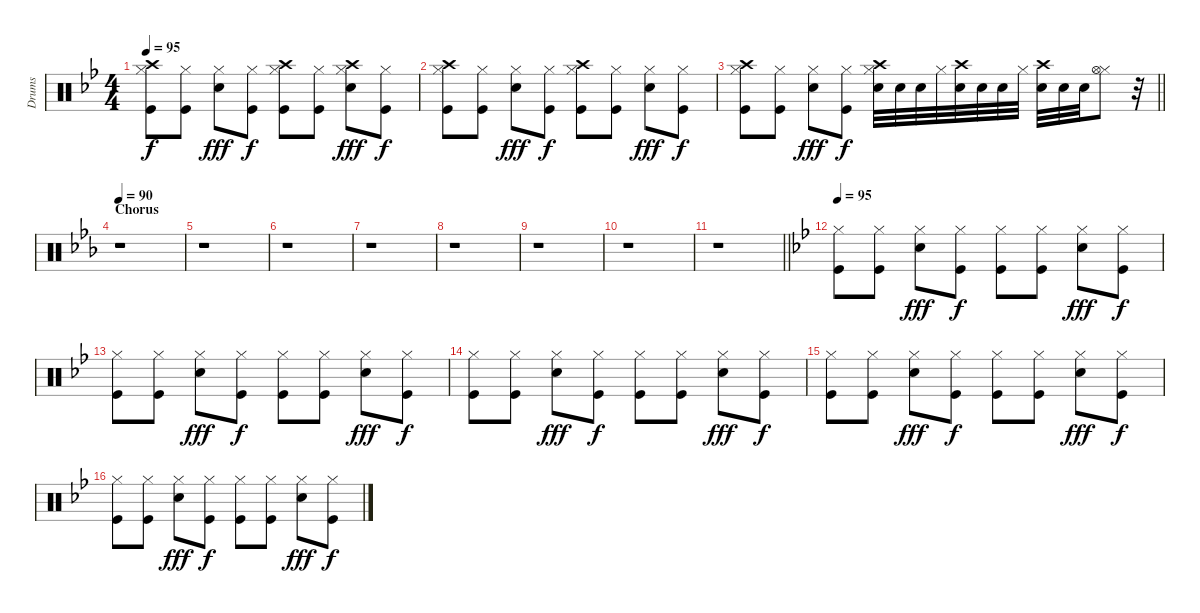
\track ("Drums" "Drums") {instrument percussion}
\staff {score}
\articulation defaults
\ts (4 4)
\tempo 95
\clef neutral
\ks gminor
("Hi-Hat (closed)" "Kick (hit)" "Crash high (hit)").8{dy f} ("Hi-Hat (closed)" "Kick (hit)").8 ("Hi-Hat (closed)" "Electric Snare (hit)").8{dy fff} ("Hi-Hat (closed)" "Kick (hit)").8{dy f} ("Hi-Hat (closed)" "Kick (hit)" "Crash high (hit)").8 ("Hi-Hat (closed)" "Kick (hit)").8 ("Hi-Hat (closed)" "Electric Snare (hit)" "Crash high (hit)").8{dy fff} ("Hi-Hat (closed)" "Kick (hit)").8{dy f} |
("Hi-Hat (closed)" "Kick (hit)" "Crash high (hit)").8 ("Hi-Hat (closed)" "Kick (hit)").8 ("Hi-Hat (closed)" "Electric Snare (hit)").8{dy fff} ("Hi-Hat (closed)" "Kick (hit)").8{dy f} ("Hi-Hat (closed)" "Kick (hit)" "Crash high (hit)").8 ("Hi-Hat (closed)" "Kick (hit)").8 ("Hi-Hat (closed)" "Electric Snare (hit)").8{dy fff} ("Hi-Hat (closed)" "Kick (hit)").8{dy f} |
\barLineRight lightlight
("Hi-Hat (closed)" "Kick (hit)" "Crash high (hit)").8 ("Hi-Hat (closed)" "Kick (hit)").8 ("Hi-Hat (closed)" "Electric Snare (hit)").8{dy fff} ("Hi-Hat (closed)" "Kick (hit)").8{dy f} ("Hi-Hat (closed)" "Electric Snare (hit)" "Crash high (hit)").32 "Electric Snare (hit)".32 "Electric Snare (hit)".32 "Hi-Hat (closed)".32 ("Snare (hit) 2" "Crash high (hit)").32 "Snare (hit) 2".32 "Snare (hit) 2".32 "Hi-Hat (closed)".32 ("Electric Snare (hit)" "Crash high (hit)").32 "Electric Snare (hit)".32 "Snare (hit) 2".32 ("Hi-Hat (closed)" "Hi-Hat (open)").8 r.32 |
\section ("" "Chorus")
\tempo 90
\ks cminor
r.1 |
r.1 |
r.1 |
r.1 |
r.1 |
r.1 |
r.1 |
\barLineRight lightlight
r.1 |
\tempo 95
\ks gminor
("Hi-Hat (closed)" "Kick (hit)").8 ("Hi-Hat (closed)" "Kick (hit)").8 ("Hi-Hat (closed)" "Electric Snare (hit)").8{dy fff} ("Hi-Hat (closed)" "Kick (hit)").8{dy f} ("Hi-Hat (closed)" "Kick (hit)").8 ("Hi-Hat (closed)" "Kick (hit)").8 ("Hi-Hat (closed)" "Electric Snare (hit)").8{dy fff} ("Hi-Hat (closed)" "Kick (hit)").8{dy f} |
("Hi-Hat (closed)" "Kick (hit)").8 ("Hi-Hat (closed)" "Kick (hit)").8 ("Hi-Hat (closed)" "Electric Snare (hit)").8{dy fff} ("Hi-Hat (closed)" "Kick (hit)").8{dy f} ("Hi-Hat (closed)" "Kick (hit)").8 ("Hi-Hat (closed)" "Kick (hit)").8 ("Hi-Hat (closed)" "Electric Snare (hit)").8{dy fff} ("Hi-Hat (closed)" "Kick (hit)").8{dy f} |
("Hi-Hat (closed)" "Kick (hit)").8 ("Hi-Hat (closed)" "Kick (hit)").8 ("Hi-Hat (closed)" "Electric Snare (hit)").8{dy fff} ("Hi-Hat (closed)" "Kick (hit)").8{dy f} ("Hi-Hat (closed)" "Kick (hit)").8 ("Hi-Hat (closed)" "Kick (hit)").8 ("Hi-Hat (closed)" "Electric Snare (hit)").8{dy fff} ("Hi-Hat (closed)" "Kick (hit)").8{dy f} |
("Hi-Hat (closed)" "Kick (hit)").8 ("Hi-Hat (closed)" "Kick (hit)").8 ("Hi-Hat (closed)" "Electric Snare (hit)").8{dy fff} ("Hi-Hat (closed)" "Kick (hit)").8{dy f} ("Hi-Hat (closed)" "Kick (hit)").8 ("Hi-Hat (closed)" "Kick (hit)").8 ("Hi-Hat (closed)" "Electric Snare (hit)").8{dy fff} ("Hi-Hat (closed)" "Kick (hit)").8{dy f} |
("Hi-Hat (closed)" "Kick (hit)").8 ("Hi-Hat (closed)" "Kick (hit)").8 ("Hi-Hat (closed)" "Electric Snare (hit)").8{dy fff} ("Hi-Hat (closed)" "Kick (hit)").8{dy f} ("Hi-Hat (closed)" "Kick (hit)").8 ("Hi-Hat (closed)" "Kick (hit)").8 ("Hi-Hat (closed)" "Electric Snare (hit)").8{dy fff} ("Hi-Hat (closed)" "Kick (hit)").8{dy f}
